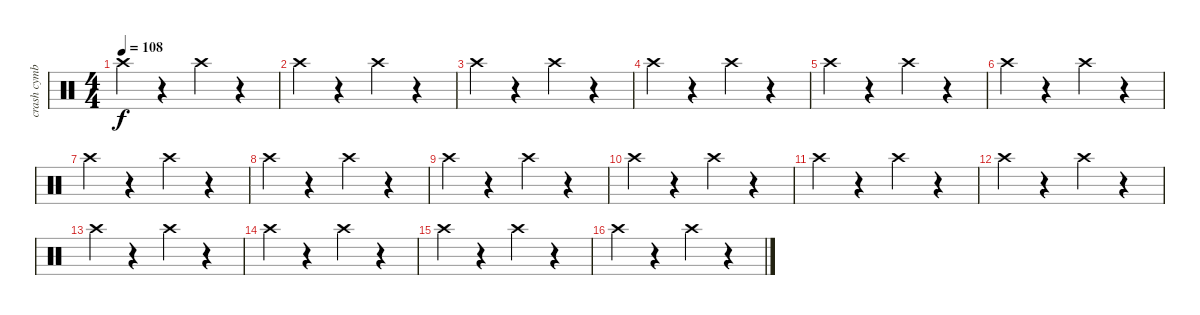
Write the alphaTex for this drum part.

\track ("crash cymbal        " "crash cymb") {instrument percussion}
\staff {score}
\articulation defaults
\ts (4 4)
\tempo 108
\clef neutral
\ks c "Crash high (hit)".4{dy f volume 15}
r.4 "Crash high (hit)".4{volume 14} r.4 |
"Crash high (hit)".4{volume 14} r.4 "Crash high (hit)".4{volume 14} r.4 |
"Crash high (hit)".4{volume 13} r.4 "Crash high (hit)".4{volume 12} r.4 |
"Crash high (hit)".4{volume 12} r.4 "Crash high (hit)".4{volume 12} r.4 |
"Crash high (hit)".4{volume 11} r.4 "Crash high (hit)".4{volume 11} r.4 |
"Crash high (hit)".4{volume 10} r.4 "Crash high (hit)".4{volume 10} r.4 |
"Crash high (hit)".4{volume 9} r.4 "Crash high (hit)".4{volume 9} r.4 |
"Crash high (hit)".4{volume 8} r.4 "Crash high (hit)".4{volume 8} r.4 |
"Crash high (hit)".4{volume 7} r.4 "Crash high (hit)".4{volume 7} r.4 |
"Crash high (hit)".4{volume 6} r.4 "Crash high (hit)".4{volume 6} r.4 |
"Crash high (hit)".4{volume 6} r.4 "Crash high (hit)".4{volume 5} r.4 |
"Crash high (hit)".4{volume 5} r.4 "Crash high (hit)".4{volume 4} r.4 |
"Crash high (hit)".4{volume 4} r.4 "Crash high (hit)".4{volume 3} r.4 |
"Crash high (hit)".4{volume 3} r.4 "Crash high (hit)".4{volume 2} r.4 |
"Crash high (hit)".4{volume 2} r.4 "Crash high (hit)".4{volume 1} r.4 |
"Crash high (hit)".4{volume 1} r.4 "Crash high (hit)".4{volume 0} r.4
